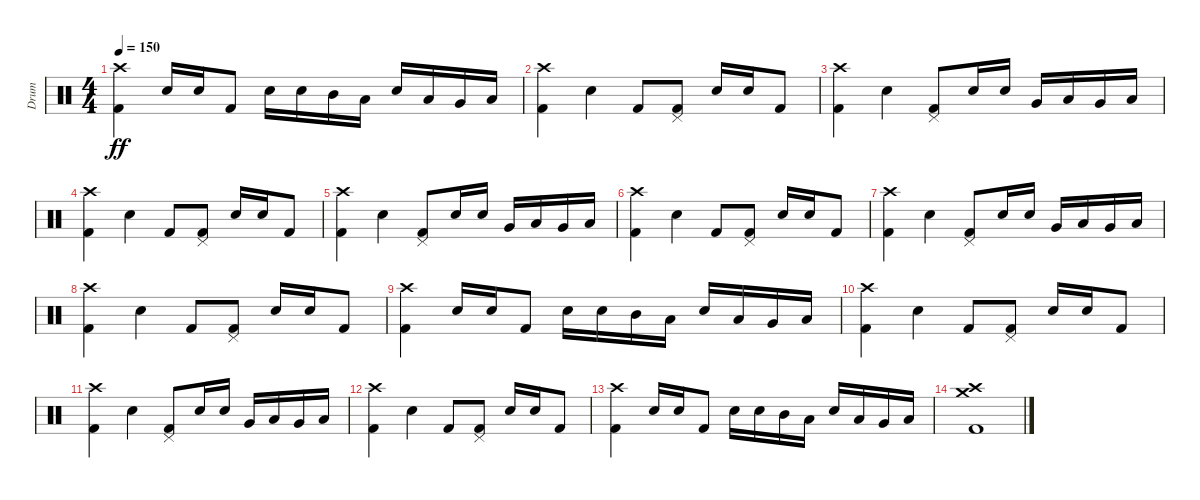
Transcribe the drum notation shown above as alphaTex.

\track ("Drum" "Drum") {instrument percussion}
\staff {score}
\articulation defaults
\ts (4 4)
\tempo 150
\clef neutral
\ks c
("Kick (hit) 2" "Crash high (hit)").4{dy ff} "Electric Snare (hit)".16 "Electric Snare (hit)".16 "Kick (hit) 2".8 "Electric Snare (hit)".16 "Electric Snare (hit)".16 "Mid Tom (hit)".16 "Low Tom (hit)".16 "Electric Snare (hit)".16 "Low Tom (hit)".16 "Very Low Tom (hit)".16 "Low Floor Tom (hit)".16 |
("Kick (hit) 2" "Crash high (hit)").4 "Electric Snare (hit)".4 "Kick (hit) 2".8 ("Kick (hit) 2" "Pedal Hi-Hat (hit)").8 "Electric Snare (hit)".16 "Snare (hit) 2".16 "Kick (hit) 2".8 |
("Kick (hit) 2" "Crash high (hit)").4 "Electric Snare (hit)".4 ("Kick (hit) 2" "Pedal Hi-Hat (hit)").8 "Electric Snare (hit)".16 "Snare (hit) 2".16 "Very Low Tom (hit)".16 "Low Tom (hit)".16 "Very Low Tom (hit)".16 "Low Floor Tom (hit)".16 |
("Kick (hit) 2" "Crash high (hit)").4 "Electric Snare (hit)".4 "Kick (hit) 2".8 ("Kick (hit) 2" "Pedal Hi-Hat (hit)").8 "Electric Snare (hit)".16 "Snare (hit) 2".16 "Kick (hit) 2".8 |
("Kick (hit) 2" "Crash high (hit)").4 "Electric Snare (hit)".4 ("Kick (hit) 2" "Pedal Hi-Hat (hit)").8 "Electric Snare (hit)".16 "Snare (hit) 2".16 "Very Low Tom (hit)".16 "Low Tom (hit)".16 "Very Low Tom (hit)".16 "Low Floor Tom (hit)".16 |
("Kick (hit) 2" "Crash high (hit)").4 "Electric Snare (hit)".4 "Kick (hit) 2".8 ("Kick (hit) 2" "Pedal Hi-Hat (hit)").8 "Electric Snare (hit)".16 "Snare (hit) 2".16 "Kick (hit) 2".8 |
("Kick (hit) 2" "Crash high (hit)").4 "Electric Snare (hit)".4 ("Kick (hit) 2" "Pedal Hi-Hat (hit)").8 "Electric Snare (hit)".16 "Snare (hit) 2".16 "Very Low Tom (hit)".16 "Low Tom (hit)".16 "Very Low Tom (hit)".16 "Low Floor Tom (hit)".16 |
("Kick (hit) 2" "Crash high (hit)").4 "Electric Snare (hit)".4 "Kick (hit) 2".8 ("Kick (hit) 2" "Pedal Hi-Hat (hit)").8 "Electric Snare (hit)".16 "Snare (hit) 2".16 "Kick (hit) 2".8 |
("Kick (hit) 2" "Crash high (hit)").4 "Electric Snare (hit)".16 "Electric Snare (hit)".16 "Kick (hit) 2".8 "Electric Snare (hit)".16 "Electric Snare (hit)".16 "Mid Tom (hit)".16 "Low Tom (hit)".16 "Electric Snare (hit)".16 "Low Tom (hit)".16 "Very Low Tom (hit)".16 "Low Floor Tom (hit)".16 |
("Kick (hit) 2" "Crash high (hit)").4 "Electric Snare (hit)".4 "Kick (hit) 2".8 ("Kick (hit) 2" "Pedal Hi-Hat (hit)").8 "Electric Snare (hit)".16 "Snare (hit) 2".16 "Kick (hit) 2".8 |
("Kick (hit) 2" "Crash high (hit)").4 "Electric Snare (hit)".4 ("Kick (hit) 2" "Pedal Hi-Hat (hit)").8 "Electric Snare (hit)".16 "Snare (hit) 2".16 "Very Low Tom (hit)".16 "Low Tom (hit)".16 "Very Low Tom (hit)".16 "Low Floor Tom (hit)".16 |
("Kick (hit) 2" "Crash high (hit)").4 "Electric Snare (hit)".4 "Kick (hit) 2".8 ("Kick (hit) 2" "Pedal Hi-Hat (hit)").8 "Electric Snare (hit)".16 "Snare (hit) 2".16 "Kick (hit) 2".8 |
("Kick (hit) 2" "Crash high (hit)").4 "Electric Snare (hit)".16 "Electric Snare (hit)".16 "Kick (hit) 2".8 "Electric Snare (hit)".16 "Electric Snare (hit)".16 "Mid Tom (hit)".16 "Low Tom (hit)".16 "Electric Snare (hit)".16 "Low Tom (hit)".16 "Very Low Tom (hit)".16 "Low Floor Tom (hit)".16 |
("Kick (hit) 2" "Crash high (hit)" "Crash medium (hit)").1
